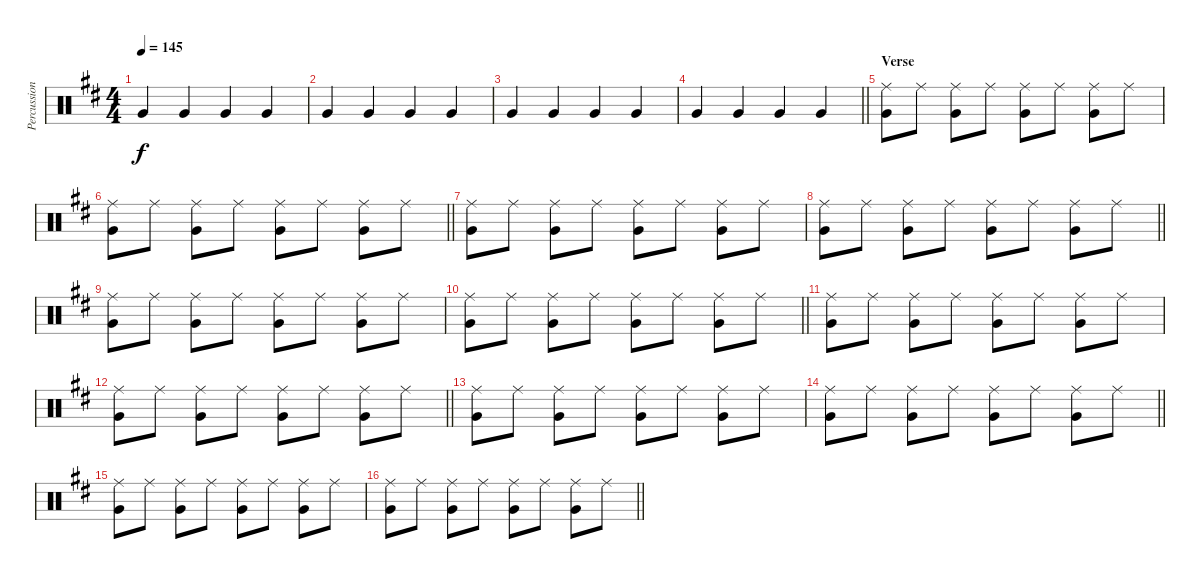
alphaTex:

\track ("Percussion" "Percussion") {instrument percussion}
\staff {score}
\articulation defaults
\ts (4 4)
\tempo 145
\clef neutral
\ks d "Very Low Tom (hit)".4{dy f} "Very Low Tom (hit)".4 "Very Low Tom (hit)".4 "Very Low Tom (hit)".4
|
"Very Low Tom (hit)".4 "Very Low Tom (hit)".4 "Very Low Tom (hit)".4 "Very Low Tom (hit)".4 |
"Very Low Tom (hit)".4 "Very Low Tom (hit)".4 "Very Low Tom (hit)".4 "Very Low Tom (hit)".4 |
\barLineRight lightlight "Very Low Tom (hit)".4 "Very Low Tom (hit)".4 "Very Low Tom (hit)".4 "Very Low Tom (hit)".4
|
\section ("" "Verse")
("Very Low Tom (hit)" "Ride (middle)").8 "Ride (middle)".8 ("Very Low Tom (hit)" "Ride (middle)").8 "Ride (middle)".8 ("Very Low Tom (hit)" "Ride (middle)").8 "Ride (middle)".8 ("Very Low Tom (hit)" "Ride (middle)").8 "Ride (middle)".8 |
\barLineRight lightlight
("Very Low Tom (hit)" "Ride (middle)").8 "Ride (middle)".8 ("Very Low Tom (hit)" "Ride (middle)").8 "Ride (middle)".8 ("Very Low Tom (hit)" "Ride (middle)").8 "Ride (middle)".8 ("Very Low Tom (hit)" "Ride (middle)").8 "Ride (middle)".8 |
("Very Low Tom (hit)" "Ride (middle)").8 "Ride (middle)".8 ("Very Low Tom (hit)" "Ride (middle)").8 "Ride (middle)".8 ("Very Low Tom (hit)" "Ride (middle)").8 "Ride (middle)".8 ("Very Low Tom (hit)" "Ride (middle)").8 "Ride (middle)".8 |
\barLineRight lightlight
("Very Low Tom (hit)" "Ride (middle)").8 "Ride (middle)".8 ("Very Low Tom (hit)" "Ride (middle)").8 "Ride (middle)".8 ("Very Low Tom (hit)" "Ride (middle)").8 "Ride (middle)".8 ("Very Low Tom (hit)" "Ride (middle)").8 "Ride (middle)".8 |
("Very Low Tom (hit)" "Ride (middle)").8 "Ride (middle)".8 ("Very Low Tom (hit)" "Ride (middle)").8 "Ride (middle)".8 ("Very Low Tom (hit)" "Ride (middle)").8 "Ride (middle)".8 ("Very Low Tom (hit)" "Ride (middle)").8 "Ride (middle)".8 |
\barLineRight lightlight
("Very Low Tom (hit)" "Ride (middle)").8 "Ride (middle)".8 ("Very Low Tom (hit)" "Ride (middle)").8 "Ride (middle)".8 ("Very Low Tom (hit)" "Ride (middle)").8 "Ride (middle)".8 ("Very Low Tom (hit)" "Ride (middle)").8 "Ride (middle)".8 |
("Very Low Tom (hit)" "Ride (middle)").8 "Ride (middle)".8 ("Very Low Tom (hit)" "Ride (middle)").8 "Ride (middle)".8 ("Very Low Tom (hit)" "Ride (middle)").8 "Ride (middle)".8 ("Very Low Tom (hit)" "Ride (middle)").8 "Ride (middle)".8 |
\barLineRight lightlight
("Very Low Tom (hit)" "Ride (middle)").8 "Ride (middle)".8 ("Very Low Tom (hit)" "Ride (middle)").8 "Ride (middle)".8 ("Very Low Tom (hit)" "Ride (middle)").8 "Ride (middle)".8 ("Very Low Tom (hit)" "Ride (middle)").8 "Ride (middle)".8 |
("Very Low Tom (hit)" "Ride (middle)").8 "Ride (middle)".8 ("Very Low Tom (hit)" "Ride (middle)").8 "Ride (middle)".8 ("Very Low Tom (hit)" "Ride (middle)").8 "Ride (middle)".8 ("Very Low Tom (hit)" "Ride (middle)").8 "Ride (middle)".8 |
\barLineRight lightlight
("Very Low Tom (hit)" "Ride (middle)").8 "Ride (middle)".8 ("Very Low Tom (hit)" "Ride (middle)").8 "Ride (middle)".8 ("Very Low Tom (hit)" "Ride (middle)").8 "Ride (middle)".8 ("Very Low Tom (hit)" "Ride (middle)").8 "Ride (middle)".8 |
("Very Low Tom (hit)" "Ride (middle)").8 "Ride (middle)".8 ("Very Low Tom (hit)" "Ride (middle)").8 "Ride (middle)".8 ("Very Low Tom (hit)" "Ride (middle)").8 "Ride (middle)".8 ("Very Low Tom (hit)" "Ride (middle)").8 "Ride (middle)".8 |
\barLineRight lightlight
("Very Low Tom (hit)" "Ride (middle)").8 "Ride (middle)".8 ("Very Low Tom (hit)" "Ride (middle)").8 "Ride (middle)".8 ("Very Low Tom (hit)" "Ride (middle)").8 "Ride (middle)".8 ("Very Low Tom (hit)" "Ride (middle)").8 "Ride (middle)".8
